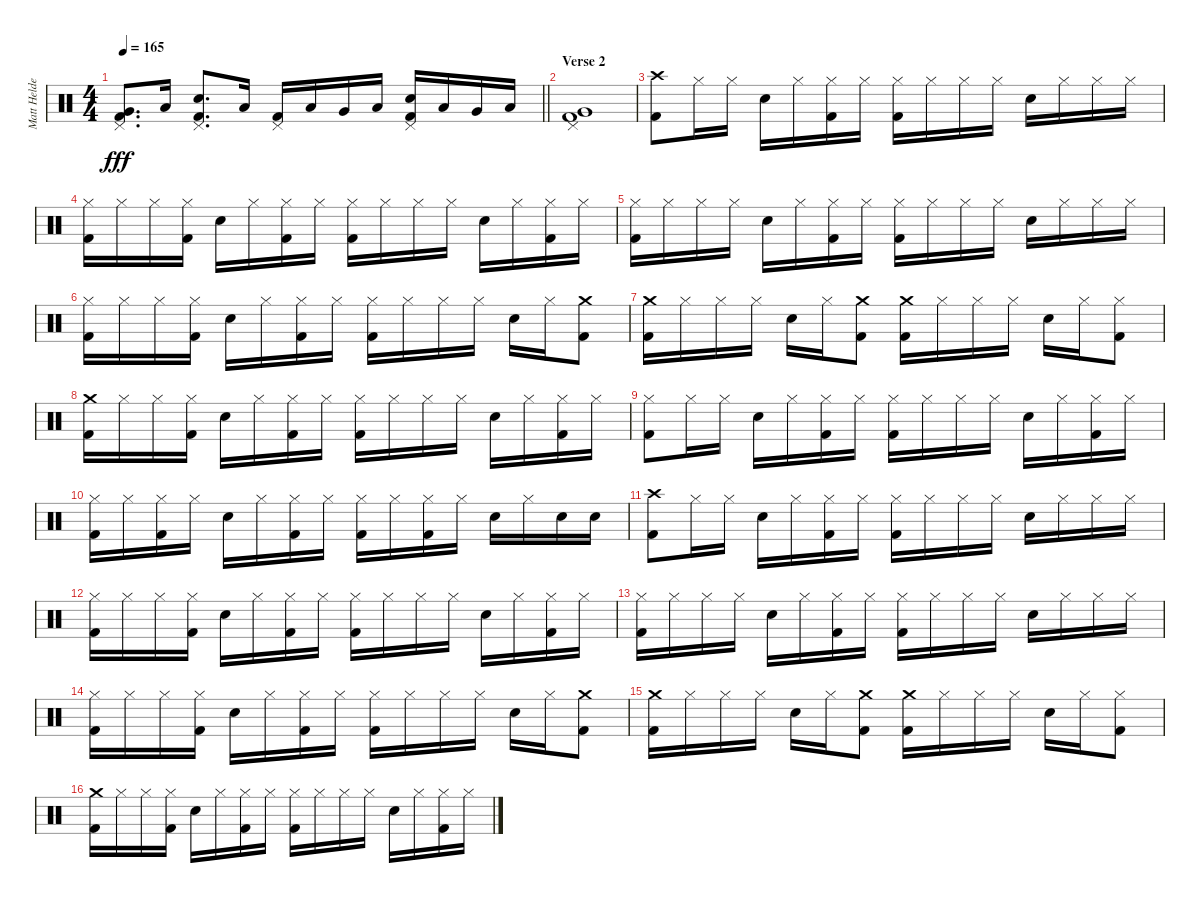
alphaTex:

\track ("Matt Helders (Drums)" "Matt Helde") {instrument percussion}
\staff {score}
\articulation defaults
\ts (4 4)
\tempo 165
\clef neutral
\barLineRight lightlight
\ks c
("Pedal Hi-Hat (hit)" "Very Low Tom (hit)" "Kick (hit) 2").8{d dy fff} "Low Tom (hit)".16 ("Pedal Hi-Hat (hit)" "Electric Snare (hit)" "Kick (hit) 2").8{d} "Low Tom (hit)".16 ("Pedal Hi-Hat (hit)" "Kick (hit) 2").16 "Low Tom (hit)".16 "Very Low Tom (hit)".16 "Low Tom (hit)".16 ("Pedal Hi-Hat (hit)" "Electric Snare (hit)" "Kick (hit) 2").16 "Low Tom (hit)".16 "Very Low Tom (hit)".16 "Low Tom (hit)".16 |
\section ("" "Verse 2")
("Pedal Hi-Hat (hit)" "Very Low Tom (hit)" "Kick (hit) 2").1 |
("Crash high (hit)" "Kick (hit) 2").8{volume 13} "Hi-Hat (closed)".16 "Hi-Hat (closed)".16 "Electric Snare (hit)".16 "Hi-Hat (closed)".16 ("Hi-Hat (closed)" "Kick (hit) 2").16 "Hi-Hat (closed)".16 ("Hi-Hat (closed)" "Kick (hit) 2").16 "Hi-Hat (closed)".16 "Hi-Hat (closed)".16 "Hi-Hat (closed)".16 "Electric Snare (hit)".16 "Hi-Hat (closed)".16 "Hi-Hat (closed)".16 "Hi-Hat (closed)".16 |
("Hi-Hat (closed)" "Kick (hit) 2").16 "Hi-Hat (closed)".16 "Hi-Hat (closed)".16 ("Hi-Hat (closed)" "Kick (hit) 2").16 "Electric Snare (hit)".16 "Hi-Hat (closed)".16 ("Hi-Hat (closed)" "Kick (hit) 2").16 "Hi-Hat (closed)".16 ("Hi-Hat (closed)" "Kick (hit) 2").16 "Hi-Hat (closed)".16 "Hi-Hat (closed)".16 "Hi-Hat (closed)".16 "Electric Snare (hit)".16 "Hi-Hat (closed)".16 ("Hi-Hat (closed)" "Kick (hit) 2").16 "Hi-Hat (closed)".16 |
("Hi-Hat (closed)" "Kick (hit) 2").16 "Hi-Hat (closed)".16 "Hi-Hat (closed)".16 "Hi-Hat (closed)".16 "Electric Snare (hit)".16 "Hi-Hat (closed)".16 ("Hi-Hat (closed)" "Kick (hit) 2").16 "Hi-Hat (closed)".16 ("Hi-Hat (closed)" "Kick (hit) 2").16 "Hi-Hat (closed)".16 "Hi-Hat (closed)".16 "Hi-Hat (closed)".16 "Electric Snare (hit)".16 "Hi-Hat (closed)".16 "Hi-Hat (closed)".16 "Hi-Hat (closed)".16 |
("Hi-Hat (closed)" "Kick (hit) 2").16 "Hi-Hat (closed)".16 "Hi-Hat (closed)".16 ("Hi-Hat (closed)" "Kick (hit) 2").16 "Electric Snare (hit)".16 "Hi-Hat (closed)".16 ("Hi-Hat (closed)" "Kick (hit) 2").16 "Hi-Hat (closed)".16 ("Hi-Hat (closed)" "Kick (hit) 2").16 "Hi-Hat (closed)".16 "Hi-Hat (closed)".16 "Hi-Hat (closed)".16 "Electric Snare (hit)".16 "Hi-Hat (closed)".16 ("Crash medium (hit)" "Kick (hit) 2").8 |
("Crash medium (hit)" "Kick (hit) 2").16 "Hi-Hat (closed)".16 "Hi-Hat (closed)".16 "Hi-Hat (closed)".16 "Electric Snare (hit)".16 "Hi-Hat (closed)".16 ("Crash medium (hit)" "Kick (hit) 2").8 ("Crash medium (hit)" "Kick (hit) 2").16 "Hi-Hat (closed)".16 "Hi-Hat (closed)".16 "Hi-Hat (closed)".16 "Electric Snare (hit)".16 "Hi-Hat (closed)".16 ("Hi-Hat (closed)" "Kick (hit) 2").8 |
("Crash medium (hit)" "Kick (hit) 2").16 "Hi-Hat (closed)".16 "Hi-Hat (closed)".16 ("Hi-Hat (closed)" "Kick (hit) 2").16 "Electric Snare (hit)".16 "Hi-Hat (closed)".16 ("Hi-Hat (closed)" "Kick (hit) 2").16 "Hi-Hat (closed)".16 ("Hi-Hat (closed)" "Kick (hit) 2").16 "Hi-Hat (closed)".16 "Hi-Hat (closed)".16 "Hi-Hat (closed)".16 "Electric Snare (hit)".16 "Hi-Hat (closed)".16 ("Hi-Hat (closed)" "Kick (hit) 2").16 "Hi-Hat (closed)".16 |
("Hi-Hat (closed)" "Kick (hit) 2").8 "Hi-Hat (closed)".16 "Hi-Hat (closed)".16 "Electric Snare (hit)".16 "Hi-Hat (closed)".16 ("Hi-Hat (closed)" "Kick (hit) 2").16 "Hi-Hat (closed)".16 ("Hi-Hat (closed)" "Kick (hit) 2").16 "Hi-Hat (closed)".16 "Hi-Hat (closed)".16 "Hi-Hat (closed)".16 "Electric Snare (hit)".16 "Hi-Hat (closed)".16 ("Hi-Hat (closed)" "Kick (hit) 2").16 "Hi-Hat (closed)".16 |
("Hi-Hat (closed)" "Kick (hit) 2").16 "Hi-Hat (closed)".16 ("Hi-Hat (closed)" "Kick (hit) 2").16 "Hi-Hat (closed)".16 "Electric Snare (hit)".16 "Hi-Hat (closed)".16 ("Hi-Hat (closed)" "Kick (hit) 2").16 "Hi-Hat (closed)".16 ("Hi-Hat (closed)" "Kick (hit) 2").16 "Hi-Hat (closed)".16 ("Hi-Hat (closed)" "Kick (hit) 2").16 "Hi-Hat (closed)".16 "Electric Snare (hit)".16 "Hi-Hat (closed)".16 "Electric Snare (hit)".16 "Electric Snare (hit)".16 |
("Crash high (hit)" "Kick (hit) 2").8 "Hi-Hat (closed)".16 "Hi-Hat (closed)".16 "Electric Snare (hit)".16 "Hi-Hat (closed)".16 ("Hi-Hat (closed)" "Kick (hit) 2").16 "Hi-Hat (closed)".16 ("Hi-Hat (closed)" "Kick (hit) 2").16 "Hi-Hat (closed)".16 "Hi-Hat (closed)".16 "Hi-Hat (closed)".16 "Electric Snare (hit)".16 "Hi-Hat (closed)".16 "Hi-Hat (closed)".16 "Hi-Hat (closed)".16 |
("Hi-Hat (closed)" "Kick (hit) 2").16 "Hi-Hat (closed)".16 "Hi-Hat (closed)".16 ("Hi-Hat (closed)" "Kick (hit) 2").16 "Electric Snare (hit)".16 "Hi-Hat (closed)".16 ("Hi-Hat (closed)" "Kick (hit) 2").16 "Hi-Hat (closed)".16 ("Hi-Hat (closed)" "Kick (hit) 2").16 "Hi-Hat (closed)".16 "Hi-Hat (closed)".16 "Hi-Hat (closed)".16 "Electric Snare (hit)".16 "Hi-Hat (closed)".16 ("Hi-Hat (closed)" "Kick (hit) 2").16 "Hi-Hat (closed)".16 |
("Hi-Hat (closed)" "Kick (hit) 2").16 "Hi-Hat (closed)".16 "Hi-Hat (closed)".16 "Hi-Hat (closed)".16 "Electric Snare (hit)".16 "Hi-Hat (closed)".16 ("Hi-Hat (closed)" "Kick (hit) 2").16 "Hi-Hat (closed)".16 ("Hi-Hat (closed)" "Kick (hit) 2").16 "Hi-Hat (closed)".16 "Hi-Hat (closed)".16 "Hi-Hat (closed)".16 "Electric Snare (hit)".16 "Hi-Hat (closed)".16 "Hi-Hat (closed)".16 "Hi-Hat (closed)".16 |
("Hi-Hat (closed)" "Kick (hit) 2").16 "Hi-Hat (closed)".16 "Hi-Hat (closed)".16 ("Hi-Hat (closed)" "Kick (hit) 2").16 "Electric Snare (hit)".16 "Hi-Hat (closed)".16 ("Hi-Hat (closed)" "Kick (hit) 2").16 "Hi-Hat (closed)".16 ("Hi-Hat (closed)" "Kick (hit) 2").16 "Hi-Hat (closed)".16 "Hi-Hat (closed)".16 "Hi-Hat (closed)".16 "Electric Snare (hit)".16 "Hi-Hat (closed)".16 ("Crash medium (hit)" "Kick (hit) 2").8 |
("Crash medium (hit)" "Kick (hit) 2").16 "Hi-Hat (closed)".16 "Hi-Hat (closed)".16 "Hi-Hat (closed)".16 "Electric Snare (hit)".16 "Hi-Hat (closed)".16 ("Crash medium (hit)" "Kick (hit) 2").8 ("Crash medium (hit)" "Kick (hit) 2").16 "Hi-Hat (closed)".16 "Hi-Hat (closed)".16 "Hi-Hat (closed)".16 "Electric Snare (hit)".16 "Hi-Hat (closed)".16 ("Hi-Hat (closed)" "Kick (hit) 2").8 |
("Crash medium (hit)" "Kick (hit) 2").16 "Hi-Hat (closed)".16 "Hi-Hat (closed)".16 ("Hi-Hat (closed)" "Kick (hit) 2").16 "Electric Snare (hit)".16 "Hi-Hat (closed)".16 ("Hi-Hat (closed)" "Kick (hit) 2").16 "Hi-Hat (closed)".16 ("Hi-Hat (closed)" "Kick (hit) 2").16 "Hi-Hat (closed)".16 "Hi-Hat (closed)".16 "Hi-Hat (closed)".16 "Electric Snare (hit)".16 "Hi-Hat (closed)".16 ("Hi-Hat (closed)" "Kick (hit) 2").16 "Hi-Hat (closed)".16
